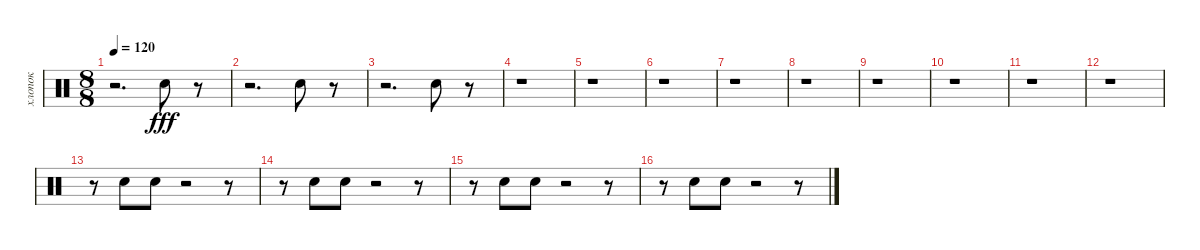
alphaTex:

\track ("хлопок" "хлопок") {instrument percussion}
\staff {score}
\articulation defaults
\ts (8 8)
\tempo 120
\clef neutral
\ks c
r.2{d dy fff} "Hand Clap (hit)".8 r.8 |
r.2{d} "Hand Clap (hit)".8 r.8 |
r.2{d} "Hand Clap (hit)".8 r.8 |
r.1 |
r.1 |
r.1 |
r.1 |
r.1 |
r.1 |
r.1 |
r.1 |
r.1 |
r.8 "Hand Clap (hit)".8 "Hand Clap (hit)".8 r.2 r.8 |
r.8 "Hand Clap (hit)".8 "Hand Clap (hit)".8 r.2 r.8 |
r.8 "Hand Clap (hit)".8 "Hand Clap (hit)".8 r.2 r.8 |
r.8 "Hand Clap (hit)".8 "Hand Clap (hit)".8 r.2 r.8
